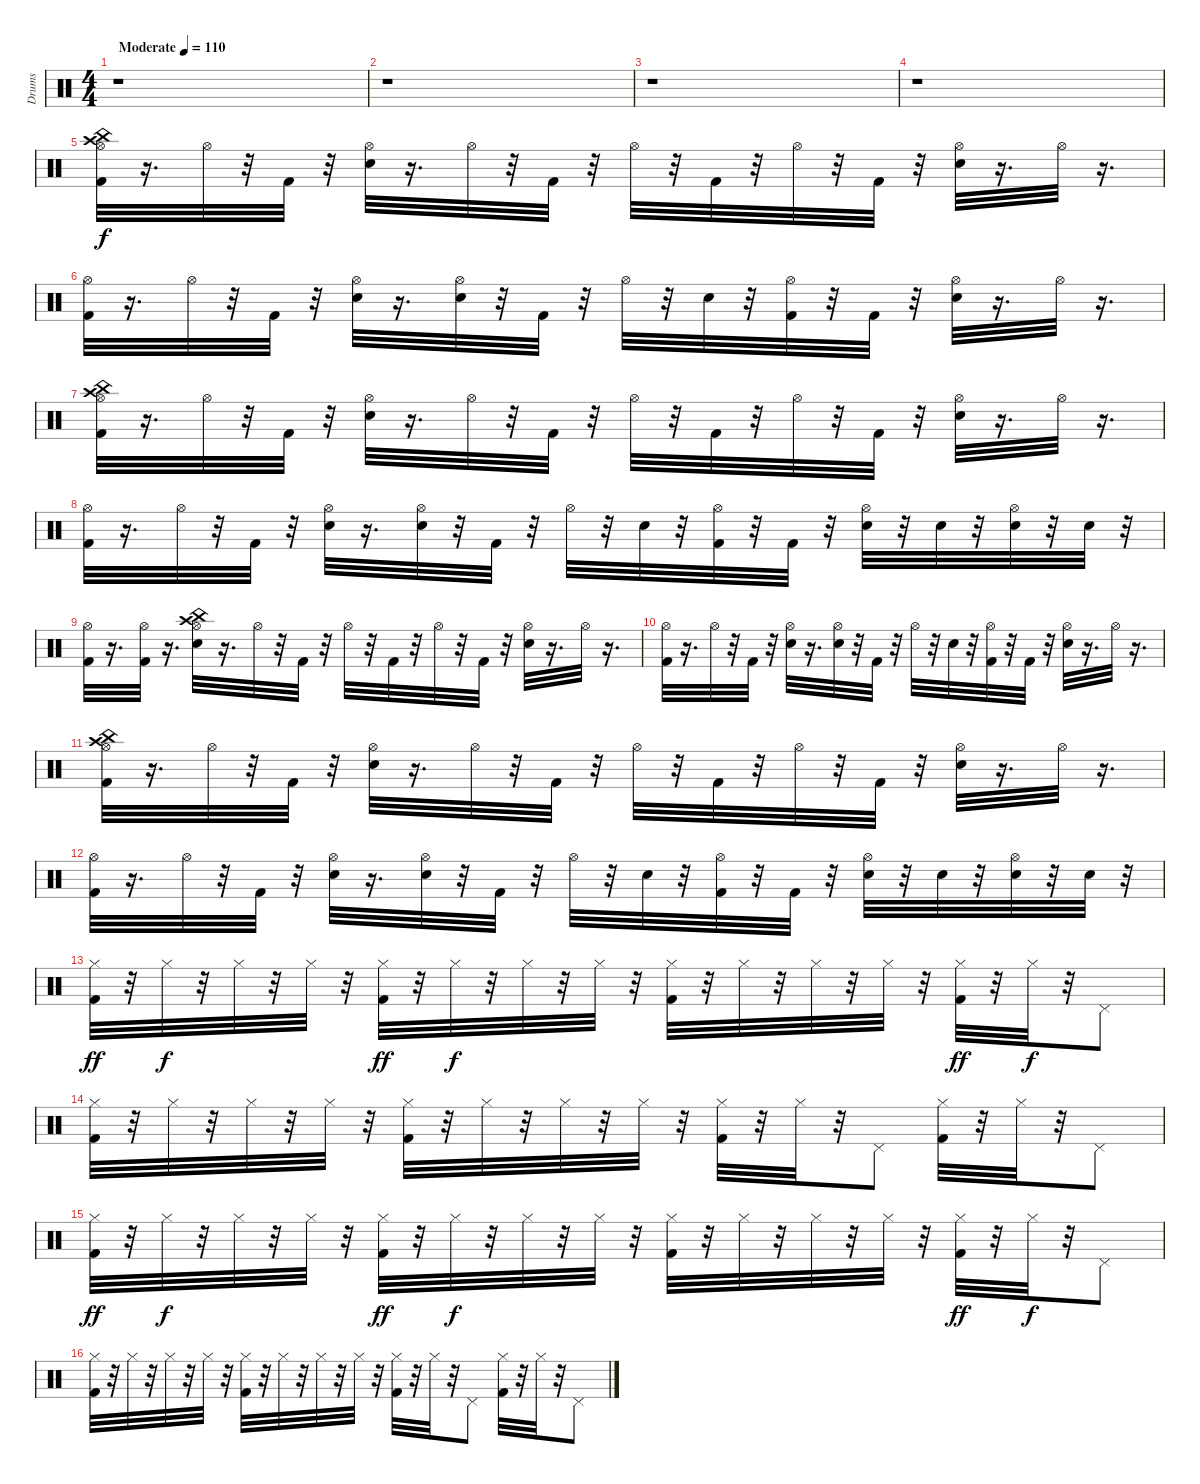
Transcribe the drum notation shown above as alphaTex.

\track ("Drums" "Drums") {instrument percussion}
\staff {score}
\articulation defaults
\ts (4 4)
\tempo (110 "Moderate")
\clef neutral
\ks c
r.1{dy f} |
r.1 |
r.1 |
r.1 |
("Kick (hit) 2" "Hi-Hat (open)" "Crash high (hit)" "China (hit)").32 r.16{d} "Hi-Hat (open)".32 r.32 "Kick (hit) 2".32 r.32 ("Snare (hit) 2" "Hi-Hat (open)").32 r.16{d} "Hi-Hat (open)".32 r.32 "Kick (hit) 2".32 r.32 "Hi-Hat (open)".32 r.32 "Kick (hit) 2".32 r.32 "Hi-Hat (open)".32 r.32 "Kick (hit) 2".32 r.32 ("Snare (hit) 2" "Hi-Hat (open)").32 r.16{d} "Hi-Hat (open)".32 r.16{d} |
("Kick (hit) 2" "Hi-Hat (open)").32 r.16{d} "Hi-Hat (open)".32 r.32 "Kick (hit) 2".32 r.32 ("Snare (hit) 2" "Hi-Hat (open)").32 r.16{d} ("Snare (hit) 2" "Hi-Hat (open)").32 r.32 "Kick (hit) 2".32 r.32 "Hi-Hat (open)".32 r.32 "Snare (hit) 2".32 r.32 ("Kick (hit) 2" "Hi-Hat (open)").32 r.32 "Kick (hit) 2".32 r.32 ("Snare (hit) 2" "Hi-Hat (open)").32 r.16{d} "Hi-Hat (open)".32 r.16{d} |
("Kick (hit) 2" "Hi-Hat (open)" "Crash high (hit)" "China (hit)").32 r.16{d} "Hi-Hat (open)".32 r.32 "Kick (hit) 2".32 r.32 ("Snare (hit) 2" "Hi-Hat (open)").32 r.16{d} "Hi-Hat (open)".32 r.32 "Kick (hit) 2".32 r.32 "Hi-Hat (open)".32 r.32 "Kick (hit) 2".32 r.32 "Hi-Hat (open)".32 r.32 "Kick (hit) 2".32 r.32 ("Snare (hit) 2" "Hi-Hat (open)").32 r.16{d} "Hi-Hat (open)".32 r.16{d} |
("Kick (hit) 2" "Hi-Hat (open)").32 r.16{d} "Hi-Hat (open)".32 r.32 "Kick (hit) 2".32 r.32 ("Snare (hit) 2" "Hi-Hat (open)").32 r.16{d} ("Snare (hit) 2" "Hi-Hat (open)").32 r.32 "Kick (hit) 2".32 r.32 "Hi-Hat (open)".32 r.32 "Snare (hit) 2".32 r.32 ("Kick (hit) 2" "Hi-Hat (open)").32 r.32 "Kick (hit) 2".32 r.32 ("Snare (hit) 2" "Hi-Hat (open)").32 r.32 "Snare (hit) 2".32 r.32 ("Snare (hit) 2" "Hi-Hat (open)").32 r.32 "Snare (hit) 2".32 r.32 |
("Kick (hit) 2" "Hi-Hat (open)").32 r.16{d} ("Kick (hit) 2" "Hi-Hat (open)").32 r.16{d} ("Snare (hit) 2" "Hi-Hat (open)" "Crash high (hit)" "China (hit)").32 r.16{d} "Hi-Hat (open)".32 r.32 "Kick (hit) 2".32 r.32 "Hi-Hat (open)".32 r.32 "Kick (hit) 2".32 r.32 "Hi-Hat (open)".32 r.32 "Kick (hit) 2".32 r.32 ("Snare (hit) 2" "Hi-Hat (open)").32 r.16{d} "Hi-Hat (open)".32 r.16{d} |
("Kick (hit) 2" "Hi-Hat (open)").32 r.16{d} "Hi-Hat (open)".32 r.32 "Kick (hit) 2".32 r.32 ("Snare (hit) 2" "Hi-Hat (open)").32 r.16{d} ("Snare (hit) 2" "Hi-Hat (open)").32 r.32 "Kick (hit) 2".32 r.32 "Hi-Hat (open)".32 r.32 "Snare (hit) 2".32 r.32 ("Kick (hit) 2" "Hi-Hat (open)").32 r.32 "Kick (hit) 2".32 r.32 ("Snare (hit) 2" "Hi-Hat (open)").32 r.16{d} "Hi-Hat (open)".32 r.16{d} |
("Kick (hit) 2" "Hi-Hat (open)" "Crash high (hit)" "China (hit)").32 r.16{d} "Hi-Hat (open)".32 r.32 "Kick (hit) 2".32 r.32 ("Snare (hit) 2" "Hi-Hat (open)").32 r.16{d} "Hi-Hat (open)".32 r.32 "Kick (hit) 2".32 r.32 "Hi-Hat (open)".32 r.32 "Kick (hit) 2".32 r.32 "Hi-Hat (open)".32 r.32 "Kick (hit) 2".32 r.32 ("Snare (hit) 2" "Hi-Hat (open)").32 r.16{d} "Hi-Hat (open)".32 r.16{d} |
("Kick (hit) 2" "Hi-Hat (open)").32 r.16{d} "Hi-Hat (open)".32 r.32 "Kick (hit) 2".32 r.32 ("Snare (hit) 2" "Hi-Hat (open)").32 r.16{d} ("Snare (hit) 2" "Hi-Hat (open)").32 r.32 "Kick (hit) 2".32 r.32 "Hi-Hat (open)".32 r.32 "Snare (hit) 2".32 r.32 ("Kick (hit) 2" "Hi-Hat (open)").32 r.32 "Kick (hit) 2".32 r.32 ("Snare (hit) 2" "Hi-Hat (open)").32 r.32 "Snare (hit) 2".32 r.32 ("Snare (hit) 2" "Hi-Hat (open)").32 r.32 "Snare (hit) 2".32 r.32 |
("Kick (hit) 2" "Hi-Hat (closed)").32{dy ff} r.32 "Hi-Hat (closed)".32{dy f} r.32 "Hi-Hat (closed)".32 r.32 "Hi-Hat (closed)".32 r.32 ("Kick (hit) 2" "Hi-Hat (closed)").32{dy ff} r.32 "Hi-Hat (closed)".32{dy f} r.32 "Hi-Hat (closed)".32 r.32 "Hi-Hat (closed)".32 r.32 ("Kick (hit) 2" "Hi-Hat (closed)").32 r.32 "Hi-Hat (closed)".32 r.32 "Hi-Hat (closed)".32 r.32 "Hi-Hat (closed)".32 r.32 ("Kick (hit) 2" "Hi-Hat (closed)").32{dy ff} r.32 "Hi-Hat (closed)".32{dy f} r.32 "Pedal Hi-Hat (hit)".8 |
("Kick (hit) 2" "Hi-Hat (closed)").32 r.32 "Hi-Hat (closed)".32 r.32 "Hi-Hat (closed)".32 r.32 "Hi-Hat (closed)".32 r.32 ("Kick (hit) 2" "Hi-Hat (closed)").32 r.32 "Hi-Hat (closed)".32 r.32 "Hi-Hat (closed)".32 r.32 "Hi-Hat (closed)".32 r.32 ("Kick (hit) 2" "Hi-Hat (closed)").32 r.32 "Hi-Hat (closed)".32 r.32 "Pedal Hi-Hat (hit)".8 ("Kick (hit) 2" "Hi-Hat (closed)").32 r.32 "Hi-Hat (closed)".32 r.32 "Pedal Hi-Hat (hit)".8 |
("Kick (hit) 2" "Hi-Hat (closed)").32{dy ff} r.32 "Hi-Hat (closed)".32{dy f} r.32 "Hi-Hat (closed)".32 r.32 "Hi-Hat (closed)".32 r.32 ("Kick (hit) 2" "Hi-Hat (closed)").32{dy ff} r.32 "Hi-Hat (closed)".32{dy f} r.32 "Hi-Hat (closed)".32 r.32 "Hi-Hat (closed)".32 r.32 ("Kick (hit) 2" "Hi-Hat (closed)").32 r.32 "Hi-Hat (closed)".32 r.32 "Hi-Hat (closed)".32 r.32 "Hi-Hat (closed)".32 r.32 ("Kick (hit) 2" "Hi-Hat (closed)").32{dy ff} r.32 "Hi-Hat (closed)".32{dy f} r.32 "Pedal Hi-Hat (hit)".8 |
("Kick (hit) 2" "Hi-Hat (closed)").32 r.32 "Hi-Hat (closed)".32 r.32 "Hi-Hat (closed)".32 r.32 "Hi-Hat (closed)".32 r.32 ("Kick (hit) 2" "Hi-Hat (closed)").32 r.32 "Hi-Hat (closed)".32 r.32 "Hi-Hat (closed)".32 r.32 "Hi-Hat (closed)".32 r.32 ("Kick (hit) 2" "Hi-Hat (closed)").32 r.32 "Hi-Hat (closed)".32 r.32 "Pedal Hi-Hat (hit)".8 ("Kick (hit) 2" "Hi-Hat (closed)").32 r.32 "Hi-Hat (closed)".32 r.32 "Pedal Hi-Hat (hit)".8
